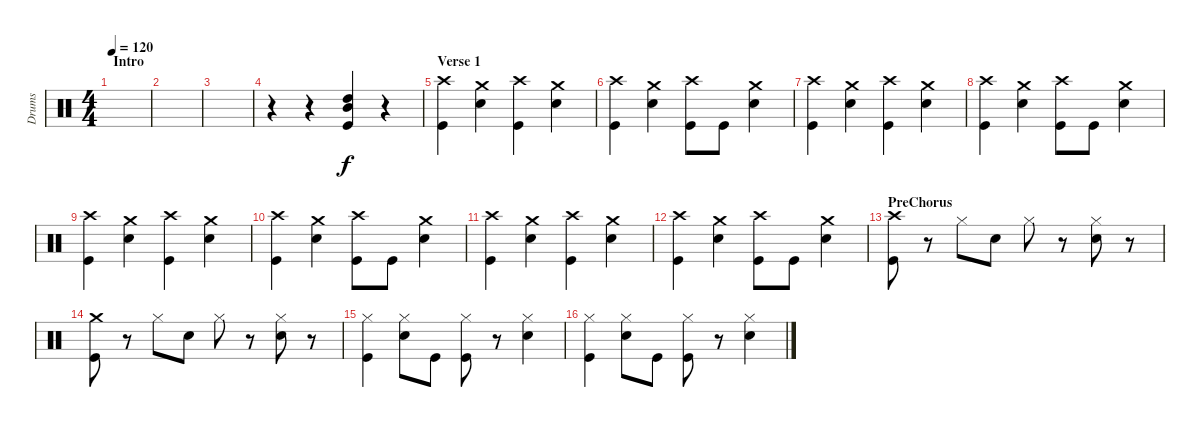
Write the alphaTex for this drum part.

\track ("Drums" "Drums") {instrument percussion}
\staff {score}
\articulation defaults
\ts (4 4)
\section ("" "Intro")
\tempo 120
\clef neutral
\ks c
|
|
|
r.4 r.4 ("Mid Tom (hit)" "High Tom (hit)" "Kick (hit)").4 r.4 |
\section ("" "Verse 1")
("Crash high (hit)" "Kick (hit)").4 ("Crash medium (hit)" "Electric Snare (hit)").4 ("Crash high (hit)" "Kick (hit)").4 ("Crash medium (hit)" "Electric Snare (hit)").4 |
("Crash high (hit)" "Kick (hit)").4 ("Crash medium (hit)" "Electric Snare (hit)").4 ("Crash high (hit)" "Kick (hit)").8 "Kick (hit)".8 ("Crash medium (hit)" "Electric Snare (hit)").4 |
("Crash high (hit)" "Kick (hit)").4 ("Crash medium (hit)" "Electric Snare (hit)").4 ("Crash high (hit)" "Kick (hit)").4 ("Crash medium (hit)" "Electric Snare (hit)").4 |
("Crash high (hit)" "Kick (hit)").4 ("Crash medium (hit)" "Electric Snare (hit)").4 ("Crash high (hit)" "Kick (hit)").8 "Kick (hit)".8 ("Crash medium (hit)" "Electric Snare (hit)").4 |
("Crash high (hit)" "Kick (hit)").4 ("Crash medium (hit)" "Electric Snare (hit)").4 ("Crash high (hit)" "Kick (hit)").4 ("Crash medium (hit)" "Electric Snare (hit)").4 |
("Crash high (hit)" "Kick (hit)").4 ("Crash medium (hit)" "Electric Snare (hit)").4 ("Crash high (hit)" "Kick (hit)").8 "Kick (hit)".8 ("Crash medium (hit)" "Electric Snare (hit)").4 |
("Crash high (hit)" "Kick (hit)").4 ("Crash medium (hit)" "Electric Snare (hit)").4 ("Crash high (hit)" "Kick (hit)").4 ("Crash medium (hit)" "Electric Snare (hit)").4 |
("Crash high (hit)" "Kick (hit)").4 ("Crash medium (hit)" "Electric Snare (hit)").4 ("Crash high (hit)" "Kick (hit)").8 "Kick (hit)".8 ("Crash medium (hit)" "Electric Snare (hit)").4 |
\section ("" "PreChorus")
("Crash high (hit)" "Kick (hit)").8 r.8 "Hi-Hat (closed)".8 "Electric Snare (hit)".8 "Hi-Hat (closed)".8 r.8 ("Hi-Hat (closed)" "Electric Snare (hit)").8 r.8 |
("Crash medium (hit)" "Kick (hit)").8 r.8 "Hi-Hat (closed)".8 "Electric Snare (hit)".8 "Hi-Hat (closed)".8 r.8 ("Hi-Hat (closed)" "Electric Snare (hit)").8 r.8 |
("Hi-Hat (closed)" "Kick (hit)").4 ("Hi-Hat (closed)" "Electric Snare (hit)").8 "Kick (hit)".8 ("Hi-Hat (closed)" "Kick (hit)").8 r.8 ("Hi-Hat (closed)" "Electric Snare (hit)").4 |
("Hi-Hat (closed)" "Kick (hit)").4 ("Hi-Hat (closed)" "Electric Snare (hit)").8 "Kick (hit)".8 ("Hi-Hat (closed)" "Kick (hit)").8 r.8 ("Hi-Hat (closed)" "Electric Snare (hit)").4
